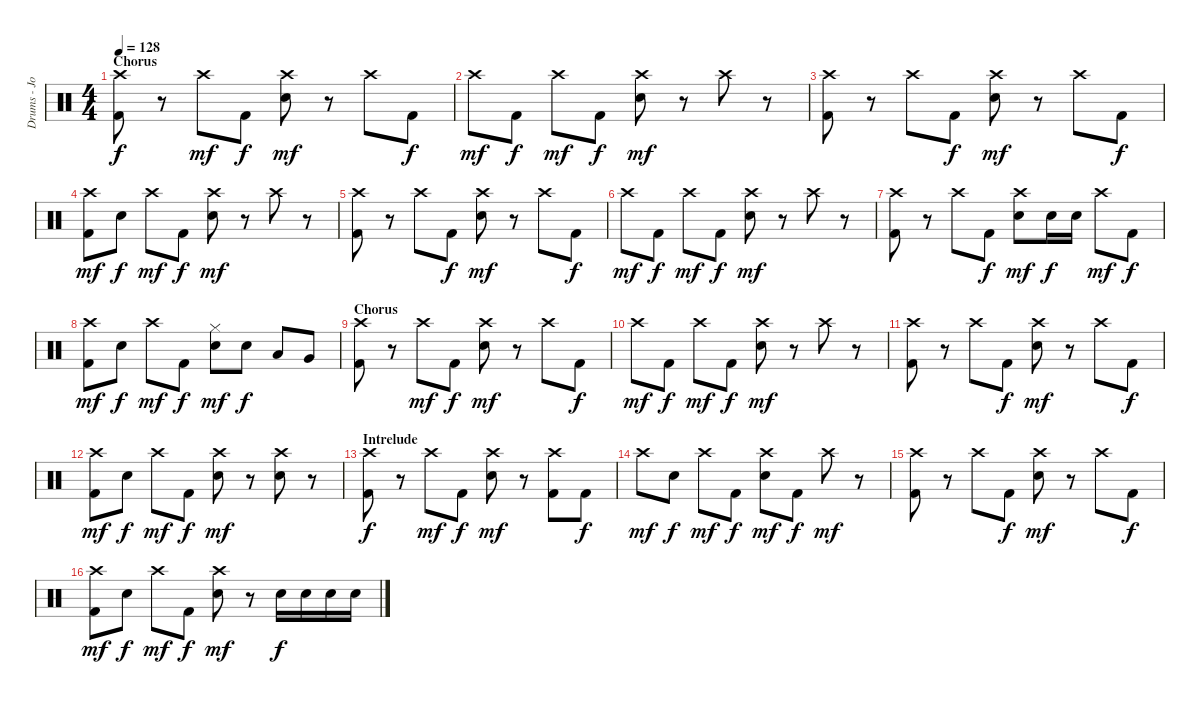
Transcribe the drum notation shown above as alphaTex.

\track ("Drums - John Humphrey" "Drums - Jo") {instrument percussion}
\staff {score}
\articulation defaults
\ts (4 4)
\section ("" "Chorus")
\tempo 128
\clef neutral
\ks c
("Crash high (hit)" "Kick (hit) 2").8{dy f} r.8 "Crash high (hit)".8{dy mf} "Kick (hit) 2".8{dy f} ("Crash high (hit)" "Electric Snare (hit)").8{dy mf} r.8 "Crash high (hit)".8 "Kick (hit) 2".8{dy f} |
"Crash high (hit)".8{dy mf} "Kick (hit) 2".8{dy f} "Crash high (hit)".8{dy mf} "Kick (hit) 2".8{dy f} ("Crash high (hit)" "Electric Snare (hit)").8{dy mf} r.8 "Crash high (hit)".8 r.8 |
("Crash high (hit)" "Kick (hit) 2").8 r.8 "Crash high (hit)".8 "Kick (hit) 2".8{dy f} ("Crash high (hit)" "Electric Snare (hit)").8{dy mf} r.8 "Crash high (hit)".8 "Kick (hit) 2".8{dy f} |
("Crash high (hit)" "Kick (hit) 2").8{dy mf} "Electric Snare (hit)".8{dy f} "Crash high (hit)".8{dy mf} "Kick (hit) 2".8{dy f} ("Crash high (hit)" "Electric Snare (hit)").8{dy mf} r.8 "Crash high (hit)".8 r.8 |
("Crash high (hit)" "Kick (hit) 2").8 r.8 "Crash high (hit)".8 "Kick (hit) 2".8{dy f} ("Crash high (hit)" "Electric Snare (hit)").8{dy mf} r.8 "Crash high (hit)".8 "Kick (hit) 2".8{dy f} |
"Crash high (hit)".8{dy mf} "Kick (hit) 2".8{dy f} "Crash high (hit)".8{dy mf} "Kick (hit) 2".8{dy f} ("Crash high (hit)" "Electric Snare (hit)").8{dy mf} r.8 "Crash high (hit)".8 r.8 |
("Crash high (hit)" "Kick (hit) 2").8 r.8 "Crash high (hit)".8 "Kick (hit) 2".8{dy f} ("Crash high (hit)" "Electric Snare (hit)").8{dy mf} "Electric Snare (hit)".16{dy f} "Electric Snare (hit)".16 "Crash high (hit)".8{dy mf} "Kick (hit) 2".8{dy f} |
("Crash high (hit)" "Kick (hit) 2").8{dy mf} "Electric Snare (hit)".8{dy f} "Crash high (hit)".8{dy mf} "Kick (hit) 2".8{dy f} ("Hi-Hat (closed)" "Electric Snare (hit)").8{dy mf} "Electric Snare (hit)".8{dy f} "Low Tom (hit)".8 "Very Low Tom (hit)".8 |
\section ("" "Chorus")
("Crash high (hit)" "Kick (hit) 2").8 r.8 "Crash high (hit)".8{dy mf} "Kick (hit) 2".8{dy f} ("Crash high (hit)" "Electric Snare (hit)").8{dy mf} r.8 "Crash high (hit)".8 "Kick (hit) 2".8{dy f} |
"Crash high (hit)".8{dy mf} "Kick (hit) 2".8{dy f} "Crash high (hit)".8{dy mf} "Kick (hit) 2".8{dy f} ("Crash high (hit)" "Electric Snare (hit)").8{dy mf} r.8 "Crash high (hit)".8 r.8 |
("Crash high (hit)" "Kick (hit) 2").8 r.8 "Crash high (hit)".8 "Kick (hit) 2".8{dy f} ("Crash high (hit)" "Electric Snare (hit)").8{dy mf} r.8 "Crash high (hit)".8 "Kick (hit) 2".8{dy f} |
("Crash high (hit)" "Kick (hit) 2").8{dy mf} "Electric Snare (hit)".8{dy f} "Crash high (hit)".8{dy mf} "Kick (hit) 2".8{dy f} ("Crash high (hit)" "Electric Snare (hit)").8{dy mf} r.8 ("Crash high (hit)" "Electric Snare (hit)").8 r.8 |
\section ("" "Intrelude")
("Crash high (hit)" "Kick (hit) 2").8{dy f} r.8 "Crash high (hit)".8{dy mf} "Kick (hit) 2".8{dy f} ("Crash high (hit)" "Electric Snare (hit)").8{dy mf} r.8 ("Crash high (hit)" "Kick (hit) 2").8 "Kick (hit) 2".8{dy f} |
"Crash high (hit)".8{dy mf} "Electric Snare (hit)".8{dy f} "Crash high (hit)".8{dy mf} "Kick (hit) 2".8{dy f} ("Crash high (hit)" "Electric Snare (hit)").8{dy mf} "Kick (hit) 2".8{dy f} "Crash high (hit)".8{dy mf} r.8 |
("Crash high (hit)" "Kick (hit) 2").8 r.8 "Crash high (hit)".8 "Kick (hit) 2".8{dy f} ("Crash high (hit)" "Electric Snare (hit)").8{dy mf} r.8 "Crash high (hit)".8 "Kick (hit) 2".8{dy f} |
("Crash high (hit)" "Kick (hit) 2").8{dy mf} "Electric Snare (hit)".8{dy f} "Crash high (hit)".8{dy mf} "Kick (hit) 2".8{dy f} ("Crash high (hit)" "Electric Snare (hit)").8{dy mf} r.8 "Electric Snare (hit)".16{dy f} "Electric Snare (hit)".16 "Electric Snare (hit)".16 "Electric Snare (hit)".16
